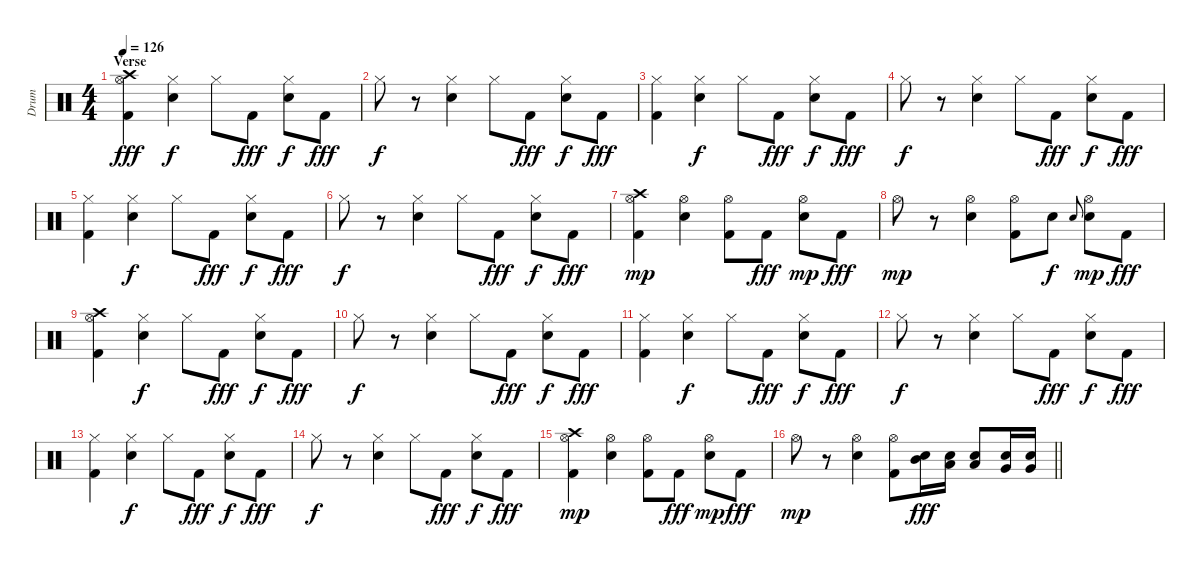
\track ("Drum" "Drum") {instrument percussion}
\staff {score}
\articulation defaults
\ts (4 4)
\section ("" "Verse")
\tempo 126
\clef neutral
\ks c
("Kick (hit) 2" "Hi-Hat (open)" "Crash high (hit)").4{dy fff} ("Electric Snare (hit)" "Hi-Hat (closed)").4{dy f} "Hi-Hat (closed)".8 "Kick (hit) 2".8{dy fff} ("Electric Snare (hit)" "Hi-Hat (closed)").8{dy f} "Kick (hit) 2".8{dy fff} |
"Hi-Hat (closed)".8{dy f} r.8 ("Electric Snare (hit)" "Hi-Hat (closed)").4 "Hi-Hat (closed)".8 "Kick (hit) 2".8{dy fff} ("Electric Snare (hit)" "Hi-Hat (closed)").8{dy f} "Kick (hit) 2".8{dy fff} |
("Kick (hit) 2" "Hi-Hat (closed)").4 ("Electric Snare (hit)" "Hi-Hat (closed)").4{dy f} "Hi-Hat (closed)".8 "Kick (hit) 2".8{dy fff} ("Electric Snare (hit)" "Hi-Hat (closed)").8{dy f} "Kick (hit) 2".8{dy fff} |
"Hi-Hat (closed)".8{dy f} r.8 ("Electric Snare (hit)" "Hi-Hat (closed)").4 "Hi-Hat (closed)".8 "Kick (hit) 2".8{dy fff} ("Electric Snare (hit)" "Hi-Hat (closed)").8{dy f} "Kick (hit) 2".8{dy fff} |
("Kick (hit) 2" "Hi-Hat (closed)").4 ("Electric Snare (hit)" "Hi-Hat (closed)").4{dy f} "Hi-Hat (closed)".8 "Kick (hit) 2".8{dy fff} ("Electric Snare (hit)" "Hi-Hat (closed)").8{dy f} "Kick (hit) 2".8{dy fff} |
"Hi-Hat (closed)".8{dy f} r.8 ("Electric Snare (hit)" "Hi-Hat (closed)").4 "Hi-Hat (closed)".8 "Kick (hit) 2".8{dy fff} ("Electric Snare (hit)" "Hi-Hat (closed)").8{dy f} "Kick (hit) 2".8{dy fff} |
("Kick (hit) 2" "Hi-Hat (open)" "Crash high (hit)").4{dy mp} ("Electric Snare (hit)" "Hi-Hat (open)").4 ("Kick (hit) 2" "Hi-Hat (open)").8 "Kick (hit) 2".8{dy fff} ("Electric Snare (hit)" "Hi-Hat (open)").8{dy mp} "Kick (hit) 2".8{dy fff} |
"Hi-Hat (open)".8{dy mp} r.8 ("Electric Snare (hit)" "Hi-Hat (open)").4 ("Kick (hit) 2" "Hi-Hat (open)").8 "Electric Snare (hit)".8{dy f} "Electric Snare (hit)".8{gr onbeat} ("Electric Snare (hit)" "Hi-Hat (open)").8{dy mp} "Kick (hit) 2".8{dy fff} |
("Kick (hit) 2" "Hi-Hat (open)" "Crash high (hit)").4 ("Electric Snare (hit)" "Hi-Hat (closed)").4{dy f} "Hi-Hat (closed)".8 "Kick (hit) 2".8{dy fff} ("Electric Snare (hit)" "Hi-Hat (closed)").8{dy f} "Kick (hit) 2".8{dy fff} |
"Hi-Hat (closed)".8{dy f} r.8 ("Electric Snare (hit)" "Hi-Hat (closed)").4 "Hi-Hat (closed)".8 "Kick (hit) 2".8{dy fff} ("Electric Snare (hit)" "Hi-Hat (closed)").8{dy f} "Kick (hit) 2".8{dy fff} |
("Kick (hit) 2" "Hi-Hat (closed)").4 ("Electric Snare (hit)" "Hi-Hat (closed)").4{dy f} "Hi-Hat (closed)".8 "Kick (hit) 2".8{dy fff} ("Electric Snare (hit)" "Hi-Hat (closed)").8{dy f} "Kick (hit) 2".8{dy fff} |
"Hi-Hat (closed)".8{dy f} r.8 ("Electric Snare (hit)" "Hi-Hat (closed)").4 "Hi-Hat (closed)".8 "Kick (hit) 2".8{dy fff} ("Electric Snare (hit)" "Hi-Hat (closed)").8{dy f} "Kick (hit) 2".8{dy fff} |
("Kick (hit) 2" "Hi-Hat (closed)").4 ("Electric Snare (hit)" "Hi-Hat (closed)").4{dy f} "Hi-Hat (closed)".8 "Kick (hit) 2".8{dy fff} ("Electric Snare (hit)" "Hi-Hat (closed)").8{dy f} "Kick (hit) 2".8{dy fff} |
"Hi-Hat (closed)".8{dy f} r.8 ("Electric Snare (hit)" "Hi-Hat (closed)").4 "Hi-Hat (closed)".8 "Kick (hit) 2".8{dy fff} ("Electric Snare (hit)" "Hi-Hat (closed)").8{dy f} "Kick (hit) 2".8{dy fff} |
("Kick (hit) 2" "Hi-Hat (open)" "Crash high (hit)").4{dy mp} ("Electric Snare (hit)" "Hi-Hat (open)").4 ("Kick (hit) 2" "Hi-Hat (open)").8 "Kick (hit) 2".8{dy fff} ("Electric Snare (hit)" "Hi-Hat (open)").8{dy mp} "Kick (hit) 2".8{dy fff} |
\barLineRight lightlight "Hi-Hat (open)".8{dy mp}
r.8 ("Electric Snare (hit)" "Hi-Hat (open)").4 ("Kick (hit) 2" "Hi-Hat (open)").8 ("Electric Snare (hit)" "Mid Tom (hit)").16{dy fff} ("Electric Snare (hit)" "Low Tom (hit)").16 ("Electric Snare (hit)" "Low Tom (hit)").8 ("Electric Snare (hit)" "Very Low Tom (hit)").16 ("Electric Snare (hit)" "Very Low Tom (hit)").16
